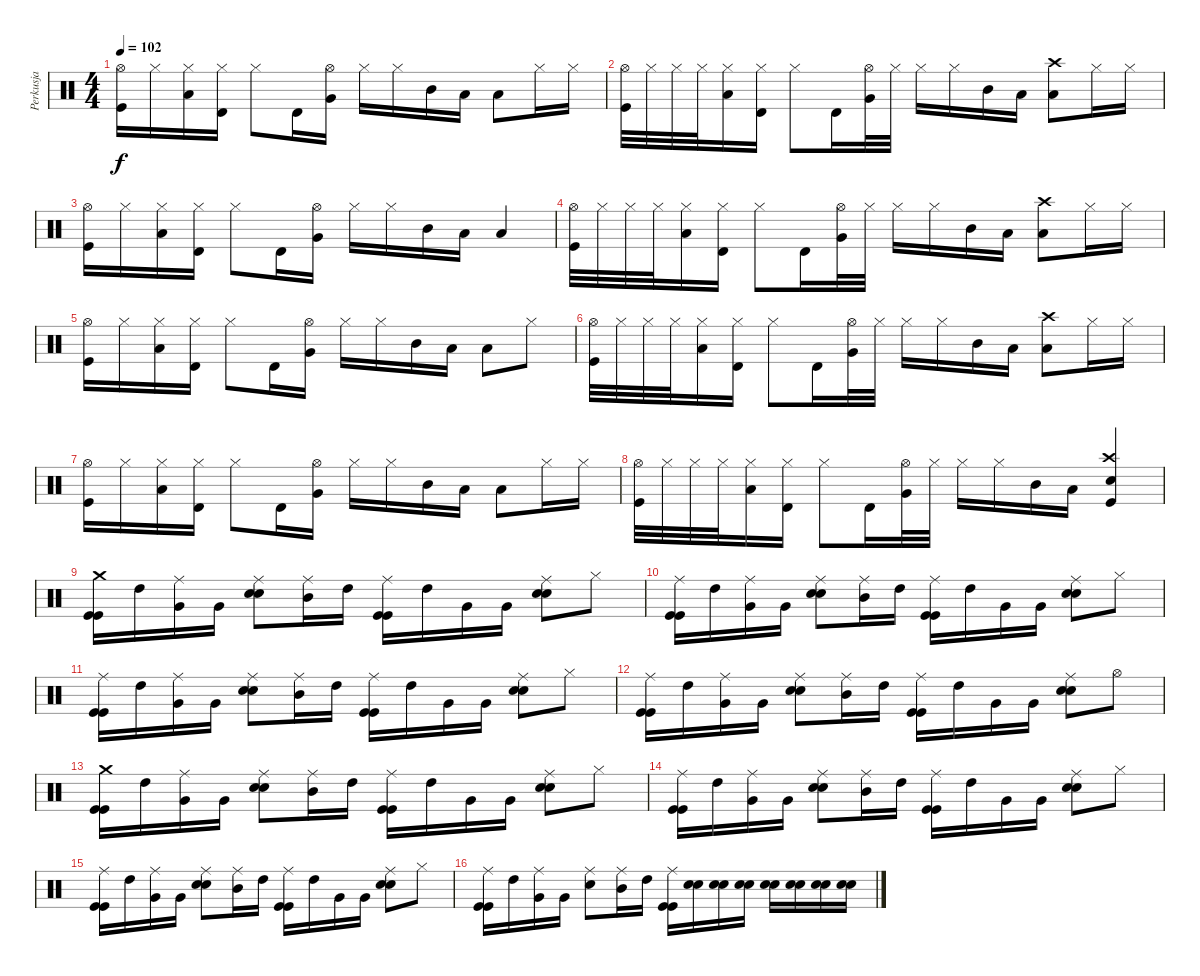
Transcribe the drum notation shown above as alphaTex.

\track ("Perkusja" "Perkusja") {instrument percussion}
\staff {score}
\articulation defaults
\ts (4 4)
\tempo 102
\clef neutral
\ks c
("Kick (hit)" "Hi-Hat (open)").16{dy f} "Hi-Hat (closed)".16 ("Low Floor Tom (hit)" "Hi-Hat (closed)").16 ("Timbale high (hit)" "Hi-Hat (closed)").16 "Hi-Hat (closed)".8 "Timbale high (hit)".16 ("Very Low Tom (hit)" "Hi-Hat (open)").16 "Hi-Hat (closed)".16 "Hi-Hat (closed)".16 "Mid Tom (hit)".16 "Low Tom (hit)".16 "Low Floor Tom (hit)".8 "Hi-Hat (closed)".16 "Hi-Hat (closed)".16 |
("Kick (hit)" "Hi-Hat (open)").32 "Hi-Hat (closed)".32 "Hi-Hat (closed)".32 "Hi-Hat (closed)".32 ("Low Floor Tom (hit)" "Hi-Hat (closed)").16 ("Timbale high (hit)" "Hi-Hat (closed)").16 "Hi-Hat (closed)".8 "Timbale high (hit)".16 ("Very Low Tom (hit)" "Hi-Hat (open)").32 "Hi-Hat (closed)".32 "Hi-Hat (closed)".16 "Hi-Hat (closed)".16 "Mid Tom (hit)".16 "Low Tom (hit)".16 ("Low Floor Tom (hit)" "Crash high (hit)").8 "Hi-Hat (closed)".16 "Hi-Hat (closed)".16 |
("Kick (hit)" "Hi-Hat (open)").16 "Hi-Hat (closed)".16 ("Low Floor Tom (hit)" "Hi-Hat (closed)").16 ("Timbale high (hit)" "Hi-Hat (closed)").16 "Hi-Hat (closed)".8 "Timbale high (hit)".16 ("Very Low Tom (hit)" "Hi-Hat (open)").16 "Hi-Hat (closed)".16 "Hi-Hat (closed)".16 "Mid Tom (hit)".16 "Low Tom (hit)".16 "Low Floor Tom (hit)".4 |
("Kick (hit)" "Hi-Hat (open)").32 "Hi-Hat (closed)".32 "Hi-Hat (closed)".32 "Hi-Hat (closed)".32 ("Low Floor Tom (hit)" "Hi-Hat (closed)").16 ("Timbale high (hit)" "Hi-Hat (closed)").16 "Hi-Hat (closed)".8 "Timbale high (hit)".16 ("Very Low Tom (hit)" "Hi-Hat (open)").32 "Hi-Hat (closed)".32 "Hi-Hat (closed)".16 "Hi-Hat (closed)".16 "Mid Tom (hit)".16 "Low Tom (hit)".16 ("Low Floor Tom (hit)" "Crash high (hit)").8 "Hi-Hat (closed)".16 "Hi-Hat (closed)".16 |
("Kick (hit)" "Hi-Hat (open)").16 "Hi-Hat (closed)".16 ("Low Floor Tom (hit)" "Hi-Hat (closed)").16 ("Timbale high (hit)" "Hi-Hat (closed)").16 "Hi-Hat (closed)".8 "Timbale high (hit)".16 ("Very Low Tom (hit)" "Hi-Hat (open)").16 "Hi-Hat (closed)".16 "Hi-Hat (closed)".16 "Mid Tom (hit)".16 "Low Tom (hit)".16 "Low Floor Tom (hit)".8 "Hi-Hat (closed)".8 |
("Kick (hit)" "Hi-Hat (open)").32 "Hi-Hat (closed)".32 "Hi-Hat (closed)".32 "Hi-Hat (closed)".32 ("Low Floor Tom (hit)" "Hi-Hat (closed)").16 ("Timbale high (hit)" "Hi-Hat (closed)").16 "Hi-Hat (closed)".8 "Timbale high (hit)".16 ("Very Low Tom (hit)" "Hi-Hat (open)").32 "Hi-Hat (closed)".32 "Hi-Hat (closed)".16 "Hi-Hat (closed)".16 "Mid Tom (hit)".16 "Low Tom (hit)".16 ("Low Floor Tom (hit)" "Crash high (hit)").8 "Hi-Hat (closed)".16 "Hi-Hat (closed)".16 |
("Kick (hit)" "Hi-Hat (open)").16 "Hi-Hat (closed)".16 ("Low Floor Tom (hit)" "Hi-Hat (closed)").16 ("Timbale high (hit)" "Hi-Hat (closed)").16 "Hi-Hat (closed)".8 "Timbale high (hit)".16 ("Very Low Tom (hit)" "Hi-Hat (open)").16 "Hi-Hat (closed)".16 "Hi-Hat (closed)".16 "Mid Tom (hit)".16 "Low Tom (hit)".16 "Low Floor Tom (hit)".8 "Hi-Hat (closed)".16 "Hi-Hat (closed)".16 |
("Kick (hit)" "Hi-Hat (open)").32 "Hi-Hat (closed)".32 "Hi-Hat (closed)".32 "Hi-Hat (closed)".32 ("Low Floor Tom (hit)" "Hi-Hat (closed)").16 ("Timbale high (hit)" "Hi-Hat (closed)").16 "Hi-Hat (closed)".8 "Timbale high (hit)".16 ("Very Low Tom (hit)" "Hi-Hat (open)").32 "Hi-Hat (closed)".32 "Hi-Hat (closed)".16 "Hi-Hat (closed)".16 "Mid Tom (hit)".16 "Low Tom (hit)".16 ("Kick (hit)" "Electric Snare (hit)" "Crash high (hit)").4 |
("Kick (hit)" "Kick (hit)" "Crash medium (hit)").16 "High Tom (hit)".16 ("Very Low Tom (hit)" "Ride (middle)").16 "Very Low Tom (hit)".16 ("Electric Snare (hit)" "Electric Snare (hit)" "Ride (middle)").8 ("Mid Tom (hit)" "Ride (middle)").16 "High Tom (hit)".16 ("Kick (hit)" "Kick (hit)" "Ride (middle)").16 "High Tom (hit)".16 "Very Low Tom (hit)".16 "Very Low Tom (hit)".16 ("Electric Snare (hit)" "Electric Snare (hit)" "Ride (middle)").8 "Hi-Hat (closed)".8 |
("Kick (hit)" "Kick (hit)" "Ride (middle)").16 "High Tom (hit)".16 ("Very Low Tom (hit)" "Ride (middle)").16 "Very Low Tom (hit)".16 ("Electric Snare (hit)" "Electric Snare (hit)" "Ride (middle)").8 ("Mid Tom (hit)" "Ride (middle)").16 "High Tom (hit)".16 ("Kick (hit)" "Kick (hit)" "Ride (middle)").16 "High Tom (hit)".16 "Very Low Tom (hit)".16 "Very Low Tom (hit)".16 ("Electric Snare (hit)" "Electric Snare (hit)" "Ride (middle)").8 "Hi-Hat (closed)".8 |
("Kick (hit)" "Kick (hit)" "Ride (middle)").16 "High Tom (hit)".16 ("Very Low Tom (hit)" "Ride (middle)").16 "Very Low Tom (hit)".16 ("Electric Snare (hit)" "Electric Snare (hit)" "Ride (middle)").8 ("Mid Tom (hit)" "Ride (middle)").16 "High Tom (hit)".16 ("Kick (hit)" "Kick (hit)" "Ride (middle)").16 "High Tom (hit)".16 "Very Low Tom (hit)".16 "Very Low Tom (hit)".16 ("Electric Snare (hit)" "Electric Snare (hit)" "Ride (middle)").8 "Hi-Hat (closed)".8 |
("Kick (hit)" "Kick (hit)" "Ride (middle)").16 "High Tom (hit)".16 ("Very Low Tom (hit)" "Ride (middle)").16 "Very Low Tom (hit)".16 ("Electric Snare (hit)" "Electric Snare (hit)" "Ride (middle)").8 ("Mid Tom (hit)" "Ride (middle)").16 "High Tom (hit)".16 ("Kick (hit)" "Kick (hit)" "Ride (middle)").16 "High Tom (hit)".16 "Very Low Tom (hit)".16 "Very Low Tom (hit)".16 ("Electric Snare (hit)" "Electric Snare (hit)" "Ride (middle)").8 "Hi-Hat (open)".8 |
("Kick (hit)" "Kick (hit)" "Crash medium (hit)").16 "High Tom (hit)".16 ("Very Low Tom (hit)" "Ride (middle)").16 "Very Low Tom (hit)".16 ("Electric Snare (hit)" "Electric Snare (hit)" "Ride (middle)").8 ("Mid Tom (hit)" "Ride (middle)").16 "High Tom (hit)".16 ("Kick (hit)" "Kick (hit)" "Ride (middle)").16 "High Tom (hit)".16 "Very Low Tom (hit)".16 "Very Low Tom (hit)".16 ("Electric Snare (hit)" "Electric Snare (hit)" "Ride (middle)").8 "Hi-Hat (closed)".8 |
("Kick (hit)" "Kick (hit)" "Ride (middle)").16 "High Tom (hit)".16 ("Very Low Tom (hit)" "Ride (middle)").16 "Very Low Tom (hit)".16 ("Electric Snare (hit)" "Electric Snare (hit)" "Ride (middle)").8 ("Mid Tom (hit)" "Ride (middle)").16 "High Tom (hit)".16 ("Kick (hit)" "Kick (hit)" "Ride (middle)").16 "High Tom (hit)".16 "Very Low Tom (hit)".16 "Very Low Tom (hit)".16 ("Electric Snare (hit)" "Electric Snare (hit)" "Ride (middle)").8 "Hi-Hat (closed)".8 |
("Kick (hit)" "Kick (hit)" "Ride (middle)").16 "High Tom (hit)".16 ("Very Low Tom (hit)" "Ride (middle)").16 "Very Low Tom (hit)".16 ("Electric Snare (hit)" "Electric Snare (hit)" "Ride (middle)").8 ("Mid Tom (hit)" "Ride (middle)").16 "High Tom (hit)".16 ("Kick (hit)" "Kick (hit)" "Ride (middle)").16 "High Tom (hit)".16 "Very Low Tom (hit)".16 "Very Low Tom (hit)".16 ("Electric Snare (hit)" "Electric Snare (hit)" "Ride (middle)").8 "Hi-Hat (closed)".8 |
("Kick (hit)" "Kick (hit)" "Ride (middle)").16 "High Tom (hit)".16 ("Very Low Tom (hit)" "Ride (middle)").16 "Very Low Tom (hit)".16 ("Electric Snare (hit)" "Ride (middle)").8 ("Mid Tom (hit)" "Ride (middle)").16 "High Tom (hit)".16 ("Kick (hit)" "Kick (hit)" "Ride (middle)").16 ("Electric Snare (hit)" "Electric Snare (hit)").16 ("Electric Snare (hit)" "Electric Snare (hit)").16 ("Electric Snare (hit)" "Electric Snare (hit)").16 ("Electric Snare (hit)" "Electric Snare (hit)").16 ("Electric Snare (hit)" "Electric Snare (hit)").16 ("Electric Snare (hit)" "Electric Snare (hit)").16 ("Electric Snare (hit)" "Electric Snare (hit)").16
